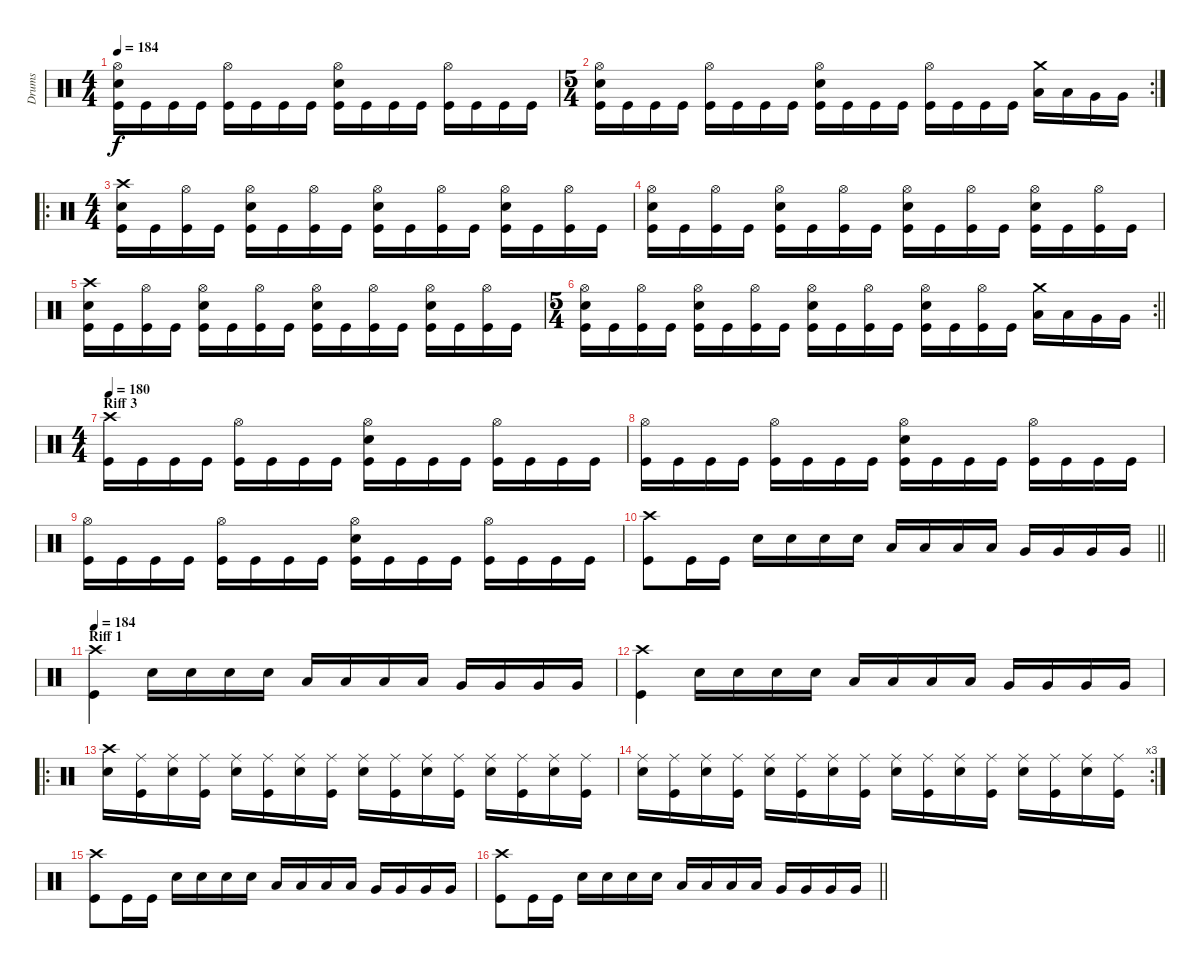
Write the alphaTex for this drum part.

\track ("Drums" "Drums") {instrument percussion}
\staff {score}
\articulation defaults
\ts (4 4)
\tempo 184
\clef neutral
\ks c
("Hi-Hat (open)" "Snare (hit) 2" "Kick (hit)").16{dy f} "Kick (hit)".16 "Kick (hit)".16 "Kick (hit)".16 ("Hi-Hat (open)" "Kick (hit)").16 "Kick (hit)".16 "Kick (hit)".16 "Kick (hit)".16 ("Hi-Hat (open)" "Snare (hit) 2" "Kick (hit)").16 "Kick (hit)".16 "Kick (hit)".16 "Kick (hit)".16 ("Hi-Hat (open)" "Kick (hit)").16 "Kick (hit)".16 "Kick (hit)".16 "Kick (hit)".16 |
\rc 2
\ts (5 4)
("Hi-Hat (open)" "Snare (hit) 2" "Kick (hit)").16 "Kick (hit)".16 "Kick (hit)".16 "Kick (hit)".16 ("Hi-Hat (open)" "Kick (hit)").16 "Kick (hit)".16 "Kick (hit)".16 "Kick (hit)".16 ("Hi-Hat (open)" "Snare (hit) 2" "Kick (hit)").16 "Kick (hit)".16 "Kick (hit)".16 "Kick (hit)".16 ("Hi-Hat (open)" "Kick (hit)").16 "Kick (hit)".16 "Kick (hit)".16 "Kick (hit)".16 ("Crash medium (hit)" "Low Tom (hit)").16 "Low Tom (hit)".16 "Very Low Tom (hit)".16 "Very Low Tom (hit)".16 |
\ro
\ts (4 4)
("Crash high (hit)" "Snare (hit) 2" "Kick (hit)").16 "Kick (hit)".16 ("Hi-Hat (open)" "Kick (hit)").16 "Kick (hit)".16 ("Hi-Hat (open)" "Snare (hit) 2" "Kick (hit)").16 "Kick (hit)".16 ("Hi-Hat (open)" "Kick (hit)").16 "Kick (hit)".16 ("Hi-Hat (open)" "Snare (hit) 2" "Kick (hit)").16 "Kick (hit)".16 ("Hi-Hat (open)" "Kick (hit)").16 "Kick (hit)".16 ("Hi-Hat (open)" "Snare (hit) 2" "Kick (hit)").16 "Kick (hit)".16 ("Hi-Hat (open)" "Kick (hit)").16 "Kick (hit)".16 |
("Hi-Hat (open)" "Snare (hit) 2" "Kick (hit)").16 "Kick (hit)".16 ("Hi-Hat (open)" "Kick (hit)").16 "Kick (hit)".16 ("Hi-Hat (open)" "Snare (hit) 2" "Kick (hit)").16 "Kick (hit)".16 ("Hi-Hat (open)" "Kick (hit)").16 "Kick (hit)".16 ("Hi-Hat (open)" "Snare (hit) 2" "Kick (hit)").16 "Kick (hit)".16 ("Hi-Hat (open)" "Kick (hit)").16 "Kick (hit)".16 ("Hi-Hat (open)" "Snare (hit) 2" "Kick (hit)").16 "Kick (hit)".16 ("Hi-Hat (open)" "Kick (hit)").16 "Kick (hit)".16 |
("Crash high (hit)" "Snare (hit) 2" "Kick (hit)").16 "Kick (hit)".16 ("Hi-Hat (open)" "Kick (hit)").16 "Kick (hit)".16 ("Hi-Hat (open)" "Snare (hit) 2" "Kick (hit)").16 "Kick (hit)".16 ("Hi-Hat (open)" "Kick (hit)").16 "Kick (hit)".16 ("Hi-Hat (open)" "Snare (hit) 2" "Kick (hit)").16 "Kick (hit)".16 ("Hi-Hat (open)" "Kick (hit)").16 "Kick (hit)".16 ("Hi-Hat (open)" "Snare (hit) 2" "Kick (hit)").16 "Kick (hit)".16 ("Hi-Hat (open)" "Kick (hit)").16 "Kick (hit)".16 |
\rc 2
\ts (5 4)
\barLineRight lightlight
("Hi-Hat (open)" "Snare (hit) 2" "Kick (hit)").16 "Kick (hit)".16 ("Hi-Hat (open)" "Kick (hit)").16 "Kick (hit)".16 ("Hi-Hat (open)" "Snare (hit) 2" "Kick (hit)").16 "Kick (hit)".16 ("Hi-Hat (open)" "Kick (hit)").16 "Kick (hit)".16 ("Hi-Hat (open)" "Snare (hit) 2" "Kick (hit)").16 "Kick (hit)".16 ("Hi-Hat (open)" "Kick (hit)").16 "Kick (hit)".16 ("Hi-Hat (open)" "Snare (hit) 2" "Kick (hit)").16 "Kick (hit)".16 ("Hi-Hat (open)" "Kick (hit)").16 "Kick (hit)".16 ("Crash medium (hit)" "Low Tom (hit)").16 "Low Tom (hit)".16 "Very Low Tom (hit)".16 "Very Low Tom (hit)".16 |
\ts (4 4)
\section ("" "Riff 3")
\tempo 180
("Crash high (hit)" "Kick (hit)").16 "Kick (hit)".16 "Kick (hit)".16 "Kick (hit)".16 ("Hi-Hat (open)" "Kick (hit)").16 "Kick (hit)".16 "Kick (hit)".16 "Kick (hit)".16 ("Hi-Hat (open)" "Snare (hit) 2" "Kick (hit)").16 "Kick (hit)".16 "Kick (hit)".16 "Kick (hit)".16 ("Hi-Hat (open)" "Kick (hit)").16 "Kick (hit)".16 "Kick (hit)".16 "Kick (hit)".16 |
("Hi-Hat (open)" "Kick (hit)").16 "Kick (hit)".16 "Kick (hit)".16 "Kick (hit)".16 ("Hi-Hat (open)" "Kick (hit)").16 "Kick (hit)".16 "Kick (hit)".16 "Kick (hit)".16 ("Hi-Hat (open)" "Snare (hit) 2" "Kick (hit)").16 "Kick (hit)".16 "Kick (hit)".16 "Kick (hit)".16 ("Hi-Hat (open)" "Kick (hit)").16 "Kick (hit)".16 "Kick (hit)".16 "Kick (hit)".16 |
("Hi-Hat (open)" "Kick (hit)").16 "Kick (hit)".16 "Kick (hit)".16 "Kick (hit)".16 ("Hi-Hat (open)" "Kick (hit)").16 "Kick (hit)".16 "Kick (hit)".16 "Kick (hit)".16 ("Hi-Hat (open)" "Snare (hit) 2" "Kick (hit)").16 "Kick (hit)".16 "Kick (hit)".16 "Kick (hit)".16 ("Hi-Hat (open)" "Kick (hit)").16 "Kick (hit)".16 "Kick (hit)".16 "Kick (hit)".16 |
\barLineRight lightlight
("Crash high (hit)" "Kick (hit)").8 "Kick (hit)".16 "Kick (hit)".16 "Snare (hit) 2".16 "Snare (hit) 2".16 "Snare (hit) 2".16 "Snare (hit) 2".16 "Low Tom (hit)".16 "Low Tom (hit)".16 "Low Tom (hit)".16 "Low Tom (hit)".16 "Very Low Tom (hit)".16 "Very Low Tom (hit)".16 "Very Low Tom (hit)".16 "Very Low Tom (hit)".16 |
\section ("" "Riff 1")
\tempo 184
("Crash high (hit)" "Kick (hit)").4 "Snare (hit) 2".16 "Snare (hit) 2".16 "Snare (hit) 2".16 "Snare (hit) 2".16 "Low Tom (hit)".16 "Low Tom (hit)".16 "Low Tom (hit)".16 "Low Tom (hit)".16 "Very Low Tom (hit)".16 "Very Low Tom (hit)".16 "Very Low Tom (hit)".16 "Very Low Tom (hit)".16 |
("Crash high (hit)" "Kick (hit)").4 "Snare (hit) 2".16 "Snare (hit) 2".16 "Snare (hit) 2".16 "Snare (hit) 2".16 "Low Tom (hit)".16 "Low Tom (hit)".16 "Low Tom (hit)".16 "Low Tom (hit)".16 "Very Low Tom (hit)".16 "Very Low Tom (hit)".16 "Very Low Tom (hit)".16 "Very Low Tom (hit)".16 |
\ro
("Crash high (hit)" "Snare (hit) 2").16 ("Ride (middle)" "Kick (hit)").16 ("Ride (middle)" "Snare (hit) 2").16 ("Ride (middle)" "Kick (hit)").16 ("Ride (middle)" "Snare (hit) 2").16 ("Ride (middle)" "Kick (hit)").16 ("Ride (middle)" "Snare (hit) 2").16 ("Ride (middle)" "Kick (hit)").16 ("Ride (middle)" "Snare (hit) 2").16 ("Ride (middle)" "Kick (hit)").16 ("Ride (middle)" "Snare (hit) 2").16 ("Ride (middle)" "Kick (hit)").16 ("Ride (middle)" "Snare (hit) 2").16 ("Ride (middle)" "Kick (hit)").16 ("Ride (middle)" "Snare (hit) 2").16 ("Ride (middle)" "Kick (hit)").16 |
\rc 3
("Ride (middle)" "Snare (hit) 2").16 ("Ride (middle)" "Kick (hit)").16 ("Ride (middle)" "Snare (hit) 2").16 ("Ride (middle)" "Kick (hit)").16 ("Ride (middle)" "Snare (hit) 2").16 ("Ride (middle)" "Kick (hit)").16 ("Ride (middle)" "Snare (hit) 2").16 ("Ride (middle)" "Kick (hit)").16 ("Ride (middle)" "Snare (hit) 2").16 ("Ride (middle)" "Kick (hit)").16 ("Ride (middle)" "Snare (hit) 2").16 ("Ride (middle)" "Kick (hit)").16 ("Ride (middle)" "Snare (hit) 2").16 ("Ride (middle)" "Kick (hit)").16 ("Ride (middle)" "Snare (hit) 2").16 ("Ride (middle)" "Kick (hit)").16 |
("Crash high (hit)" "Kick (hit)").8 "Kick (hit)".16 "Kick (hit)".16 "Snare (hit) 2".16 "Snare (hit) 2".16 "Snare (hit) 2".16 "Snare (hit) 2".16 "Low Tom (hit)".16 "Low Tom (hit)".16 "Low Tom (hit)".16 "Low Tom (hit)".16 "Very Low Tom (hit)".16 "Very Low Tom (hit)".16 "Very Low Tom (hit)".16 "Very Low Tom (hit)".16 |
\barLineRight lightlight
("Crash high (hit)" "Kick (hit)").8 "Kick (hit)".16 "Kick (hit)".16 "Snare (hit) 2".16 "Snare (hit) 2".16 "Snare (hit) 2".16 "Snare (hit) 2".16 "Low Tom (hit)".16 "Low Tom (hit)".16 "Low Tom (hit)".16 "Low Tom (hit)".16 "Very Low Tom (hit)".16 "Very Low Tom (hit)".16 "Very Low Tom (hit)".16 "Very Low Tom (hit)".16
